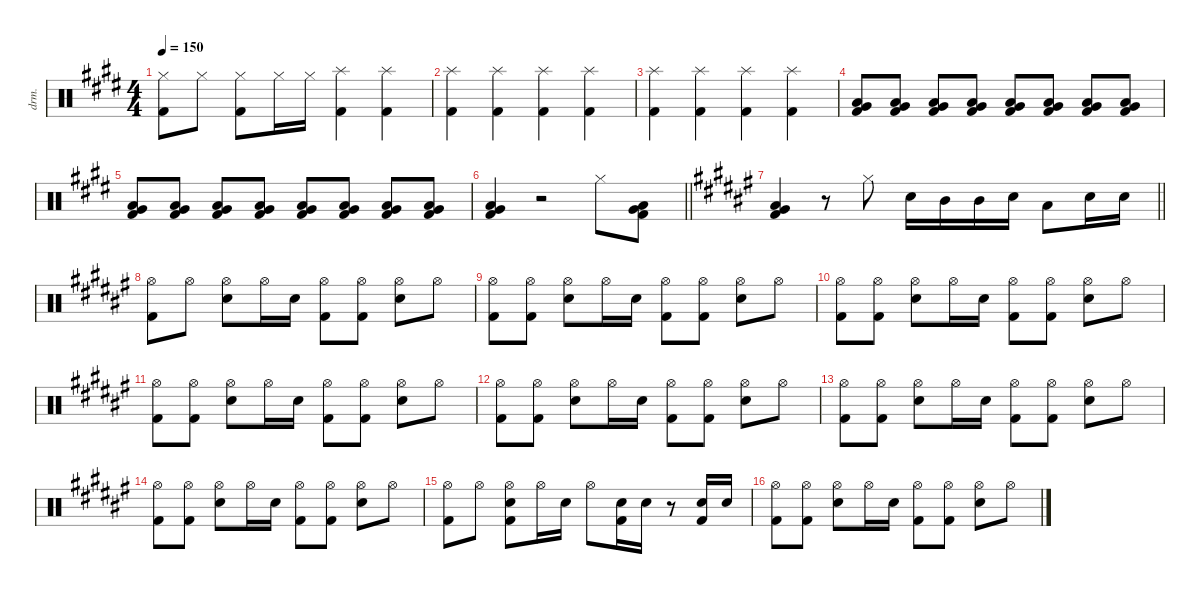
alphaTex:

\defaultSystemsLayout 4
\hideDynamics
\bracketExtendMode nobrackets
\track (" (Drums)" "drm.") {instrument percussion}
\staff {score}
\articulation defaults
\ts (4 4)
\tempo 150
\clef neutral
\ks c#minor
("Hi-Hat (closed)"{acc forcenatural} "Kick (hit) 2"{acc forcenatural}).8{dy f} "Hi-Hat (closed)"{acc forcenatural}.8 ("Hi-Hat (closed)"{acc forcenatural} "Kick (hit) 2"{acc forcenatural}).8 "Hi-Hat (closed)"{acc forcenatural}.16 "Hi-Hat (closed)"{acc forcenatural}.16 ("Splash (hit)"{acc forcenatural} "Kick (hit) 2"{acc forcenatural}).4 ("Splash (hit)"{acc forcenatural} "Kick (hit) 2"{acc forcenatural}).4 |
("Splash (hit)"{acc forcenatural} "Kick (hit) 2"{acc forcenatural}).4 ("Splash (hit)"{acc forcenatural} "Kick (hit) 2"{acc forcenatural}).4 ("Splash (hit)"{acc forcenatural} "Kick (hit) 2"{acc forcenatural}).4 ("Splash (hit)"{acc forcenatural} "Kick (hit) 2"{acc forcenatural}).4 |
("Splash (hit)"{acc forcenatural} "Kick (hit) 2"{acc forcenatural}).4 ("Splash (hit)"{acc forcenatural} "Kick (hit) 2"{acc forcenatural}).4 ("Splash (hit)"{acc forcenatural} "Kick (hit) 2"{acc forcenatural}).4 ("Splash (hit)"{acc forcenatural} "Kick (hit) 2"{acc forcenatural}).4 |
("Low Tom (hit)"{acc forcenatural} "Very Low Tom (hit)"{acc forcenatural} "Kick (hit) 2"{acc forcenatural}).8{dy p} ("Low Tom (hit)"{acc forcenatural} "Very Low Tom (hit)"{acc forcenatural} "Kick (hit) 2"{acc forcenatural}).8 ("Low Tom (hit)"{acc forcenatural} "Very Low Tom (hit)"{acc forcenatural} "Kick (hit) 2"{acc forcenatural}).8 ("Low Tom (hit)"{acc forcenatural} "Very Low Tom (hit)"{acc forcenatural} "Kick (hit) 2"{acc forcenatural}).8 ("Low Tom (hit)"{acc forcenatural} "Very Low Tom (hit)"{acc forcenatural} "Kick (hit) 2"{acc forcenatural}).8{dy mp} ("Low Tom (hit)"{acc forcenatural} "Very Low Tom (hit)"{acc forcenatural} "Kick (hit) 2"{acc forcenatural}).8 ("Low Tom (hit)"{acc forcenatural} "Very Low Tom (hit)"{acc forcenatural} "Kick (hit) 2"{acc forcenatural}).8 ("Low Tom (hit)"{acc forcenatural} "Very Low Tom (hit)"{acc forcenatural} "Kick (hit) 2"{acc forcenatural}).8 |
("Low Tom (hit)"{acc forcenatural} "Very Low Tom (hit)"{acc forcenatural} "Kick (hit) 2"{acc forcenatural}).8{dy mf} ("Low Tom (hit)"{acc forcenatural} "Very Low Tom (hit)"{acc forcenatural} "Kick (hit) 2"{acc forcenatural}).8 ("Low Tom (hit)"{acc forcenatural} "Very Low Tom (hit)"{acc forcenatural} "Kick (hit) 2"{acc forcenatural}).8 ("Low Tom (hit)"{acc forcenatural} "Very Low Tom (hit)"{acc forcenatural} "Kick (hit) 2"{acc forcenatural}).8 ("Low Tom (hit)"{acc forcenatural} "Very Low Tom (hit)"{acc forcenatural} "Kick (hit) 2"{acc forcenatural}).8{dy f} ("Low Tom (hit)"{acc forcenatural} "Very Low Tom (hit)"{acc forcenatural} "Kick (hit) 2"{acc forcenatural}).8 ("Low Tom (hit)"{acc forcenatural} "Very Low Tom (hit)"{acc forcenatural} "Kick (hit) 2"{acc forcenatural}).8 ("Low Tom (hit)"{acc forcenatural} "Very Low Tom (hit)"{acc forcenatural} "Kick (hit) 2"{acc forcenatural}).8 |
\barLineRight lightlight
("Low Tom (hit)"{acc forcenatural} "Very Low Tom (hit)"{acc forcenatural} "Kick (hit) 2"{acc forcenatural}).4{dy ff} r.2 "Hi-Hat (closed)"{acc forcenatural}.8{dy f} ("Low Tom (hit)"{acc forcenatural} "Very Low Tom (hit)"{acc forcenatural} "Kick (hit) 2"{acc forcenatural}).8 |
\barLineRight lightlight
\ks d#minor
("Low Tom (hit)"{acc forcenatural} "Very Low Tom (hit)"{acc forcenatural} "Kick (hit) 2"{acc forcenatural}).4{dy mf} r.8 "Hi-Hat (closed)"{acc forcenatural}.8{dy f} "Snare (hit) 2"{acc forcenatural}.16 "Mid Tom (hit)"{acc forcenatural}.16 "Mid Tom (hit)"{acc forcenatural}.16 "Snare (hit) 2"{acc forcenatural}.16 "Low Tom (hit)"{acc forcenatural}.8 "Snare (hit) 2"{acc forcenatural}.16 "Snare (hit) 2"{acc forcenatural}.16 |
("Hi-Hat (open)"{acc forcenatural} "Kick (hit) 2"{acc forcenatural}).8 "Hi-Hat (open)"{acc forcenatural}.8 ("Hi-Hat (open)"{acc forcenatural} "Snare (hit) 2"{acc forcenatural}).8 "Hi-Hat (open)"{acc forcenatural}.16 "Snare (hit) 2"{acc forcenatural}.16{dy mf} ("Hi-Hat (open)"{acc forcenatural} "Kick (hit) 2"{acc forcenatural}).8{dy f} ("Hi-Hat (open)"{acc forcenatural} "Kick (hit) 2"{acc forcenatural}).8 ("Hi-Hat (open)"{acc forcenatural} "Snare (hit) 2"{acc forcenatural}).8 "Hi-Hat (open)"{acc forcenatural}.8 |
("Hi-Hat (open)"{acc forcenatural} "Kick (hit) 2"{acc forcenatural}).8 ("Hi-Hat (open)"{acc forcenatural} "Kick (hit) 2"{acc forcenatural}).8 ("Hi-Hat (open)"{acc forcenatural} "Snare (hit) 2"{acc forcenatural}).8 "Hi-Hat (open)"{acc forcenatural}.16 "Snare (hit) 2"{acc forcenatural}.16{dy mf} ("Hi-Hat (open)"{acc forcenatural} "Kick (hit) 2"{acc forcenatural}).8{dy f} ("Hi-Hat (open)"{acc forcenatural} "Kick (hit) 2"{acc forcenatural}).8 ("Hi-Hat (open)"{acc forcenatural} "Snare (hit) 2"{acc forcenatural}).8 "Hi-Hat (open)"{acc forcenatural}.8 |
("Hi-Hat (open)"{acc forcenatural} "Kick (hit) 2"{acc forcenatural}).8 ("Hi-Hat (open)"{acc forcenatural} "Kick (hit) 2"{acc forcenatural}).8 ("Hi-Hat (open)"{acc forcenatural} "Snare (hit) 2"{acc forcenatural}).8 "Hi-Hat (open)"{acc forcenatural}.16 "Snare (hit) 2"{acc forcenatural}.16{dy mf} ("Hi-Hat (open)"{acc forcenatural} "Kick (hit) 2"{acc forcenatural}).8{dy f} ("Hi-Hat (open)"{acc forcenatural} "Kick (hit) 2"{acc forcenatural}).8 ("Hi-Hat (open)"{acc forcenatural} "Snare (hit) 2"{acc forcenatural}).8 "Hi-Hat (open)"{acc forcenatural}.8 |
("Hi-Hat (open)"{acc forcenatural} "Kick (hit) 2"{acc forcenatural}).8 ("Hi-Hat (open)"{acc forcenatural} "Kick (hit) 2"{acc forcenatural}).8 ("Hi-Hat (open)"{acc forcenatural} "Snare (hit) 2"{acc forcenatural}).8 "Hi-Hat (open)"{acc forcenatural}.16 "Snare (hit) 2"{acc forcenatural}.16{dy mf} ("Hi-Hat (open)"{acc forcenatural} "Kick (hit) 2"{acc forcenatural}).8{dy f} ("Hi-Hat (open)"{acc forcenatural} "Kick (hit) 2"{acc forcenatural}).8 ("Hi-Hat (open)"{acc forcenatural} "Snare (hit) 2"{acc forcenatural}).8 "Hi-Hat (open)"{acc forcenatural}.8 |
("Hi-Hat (open)"{acc forcenatural} "Kick (hit) 2"{acc forcenatural}).8 ("Hi-Hat (open)"{acc forcenatural} "Kick (hit) 2"{acc forcenatural}).8 ("Hi-Hat (open)"{acc forcenatural} "Snare (hit) 2"{acc forcenatural}).8 "Hi-Hat (open)"{acc forcenatural}.16 "Snare (hit) 2"{acc forcenatural}.16{dy mf} ("Hi-Hat (open)"{acc forcenatural} "Kick (hit) 2"{acc forcenatural}).8{dy f} ("Hi-Hat (open)"{acc forcenatural} "Kick (hit) 2"{acc forcenatural}).8 ("Hi-Hat (open)"{acc forcenatural} "Snare (hit) 2"{acc forcenatural}).8 "Hi-Hat (open)"{acc forcenatural}.8 |
("Hi-Hat (open)"{acc forcenatural} "Kick (hit) 2"{acc forcenatural}).8 ("Hi-Hat (open)"{acc forcenatural} "Kick (hit) 2"{acc forcenatural}).8 ("Hi-Hat (open)"{acc forcenatural} "Snare (hit) 2"{acc forcenatural}).8 "Hi-Hat (open)"{acc forcenatural}.16 "Snare (hit) 2"{acc forcenatural}.16{dy mf} ("Hi-Hat (open)"{acc forcenatural} "Kick (hit) 2"{acc forcenatural}).8{dy f} ("Hi-Hat (open)"{acc forcenatural} "Kick (hit) 2"{acc forcenatural}).8 ("Hi-Hat (open)"{acc forcenatural} "Snare (hit) 2"{acc forcenatural}).8 "Hi-Hat (open)"{acc forcenatural}.8 |
("Hi-Hat (open)"{acc forcenatural} "Kick (hit) 2"{acc forcenatural}).8 ("Hi-Hat (open)"{acc forcenatural} "Kick (hit) 2"{acc forcenatural}).8 ("Hi-Hat (open)"{acc forcenatural} "Snare (hit) 2"{acc forcenatural}).8 "Hi-Hat (open)"{acc forcenatural}.16 "Snare (hit) 2"{acc forcenatural}.16{dy mf} ("Hi-Hat (open)"{acc forcenatural} "Kick (hit) 2"{acc forcenatural}).8{dy f} ("Hi-Hat (open)"{acc forcenatural} "Kick (hit) 2"{acc forcenatural}).8 ("Hi-Hat (open)"{acc forcenatural} "Snare (hit) 2"{acc forcenatural}).8 "Hi-Hat (open)"{acc forcenatural}.8 |
("Hi-Hat (open)"{acc forcenatural} "Kick (hit) 2"{acc forcenatural}).8 "Hi-Hat (open)"{acc forcenatural}.8 ("Hi-Hat (open)"{acc forcenatural} "Snare (hit) 2"{acc forcenatural} "Kick (hit) 2"{acc forcenatural}).8 "Hi-Hat (open)"{acc forcenatural}.16 "Snare (hit) 2"{acc forcenatural}.16{dy mf} "Hi-Hat (open)"{acc forcenatural}.8{dy f} ("Snare (hit) 2"{acc forcenatural} "Kick (hit) 2"{acc forcenatural}).16 "Snare (hit) 2"{acc forcenatural}.16 r.8 ("Snare (hit) 2"{acc forcenatural} "Kick (hit) 2"{acc forcenatural}).16 "Snare (hit) 2"{acc forcenatural}.16 |
("Hi-Hat (open)"{acc forcenatural} "Kick (hit) 2"{acc forcenatural}).8 ("Hi-Hat (open)"{acc forcenatural} "Kick (hit) 2"{acc forcenatural}).8 ("Hi-Hat (open)"{acc forcenatural} "Snare (hit) 2"{acc forcenatural}).8 "Hi-Hat (open)"{acc forcenatural}.16 "Snare (hit) 2"{acc forcenatural}.16{dy mf} ("Hi-Hat (open)"{acc forcenatural} "Kick (hit) 2"{acc forcenatural}).8{dy f} ("Hi-Hat (open)"{acc forcenatural} "Kick (hit) 2"{acc forcenatural}).8 ("Hi-Hat (open)"{acc forcenatural} "Snare (hit) 2"{acc forcenatural}).8 "Hi-Hat (open)"{acc forcenatural}.8
